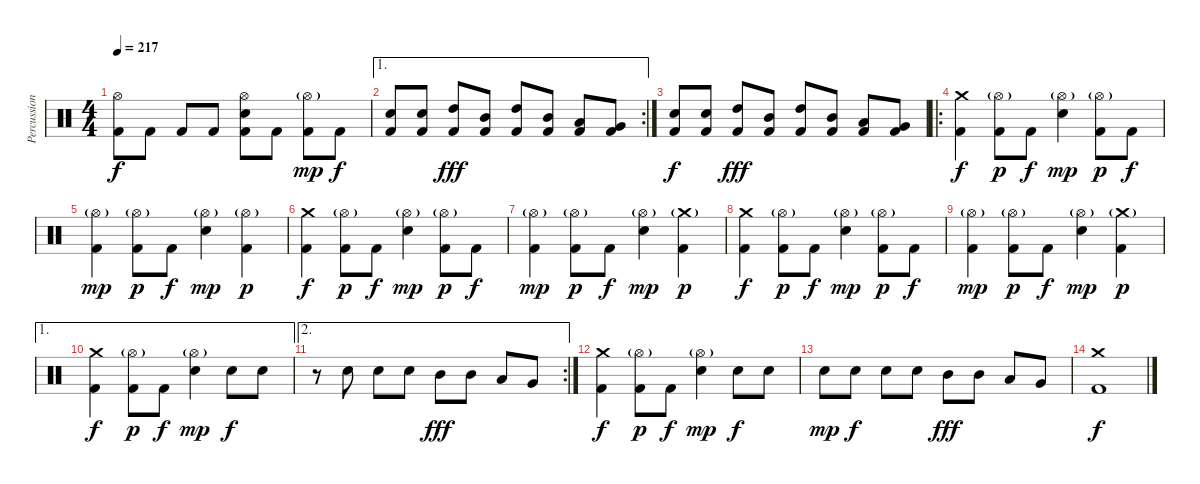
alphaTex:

\track ("Percussion" "Percussion") {instrument percussion}
\staff {score}
\articulation defaults
\ts (4 4)
\tempo 217
\clef neutral
\ks c
("Hi-Hat (open)" "Kick (hit) 2").8{dy f} "Kick (hit) 2".8 "Kick (hit) 2".8 "Kick (hit) 2".8 ("Hi-Hat (open)" "Electric Snare (hit)" "Kick (hit) 2").8 "Kick (hit) 2".8 ("Hi-Hat (open)"{g} "Kick (hit) 2").8{dy mp} "Kick (hit) 2".8{dy f} |
\ae 1
\rc 2
("Electric Snare (hit)" "Kick (hit) 2").8 ("Electric Snare (hit)" "Kick (hit) 2").8 ("High Tom (hit)" "Kick (hit) 2").8{dy fff} ("Mid Tom (hit)" "Kick (hit) 2").8 ("High Tom (hit)" "Kick (hit) 2").8 ("Mid Tom (hit)" "Kick (hit) 2").8 ("Low Tom (hit)" "Kick (hit) 2").8 ("Very Low Tom (hit)" "Kick (hit) 2").8 |
("Electric Snare (hit)" "Kick (hit) 2").8{dy f} ("Electric Snare (hit)" "Kick (hit) 2").8 ("High Tom (hit)" "Kick (hit) 2").8{dy fff} ("Mid Tom (hit)" "Kick (hit) 2").8 ("High Tom (hit)" "Kick (hit) 2").8 ("Mid Tom (hit)" "Kick (hit) 2").8 ("Low Tom (hit)" "Kick (hit) 2").8 ("Very Low Tom (hit)" "Kick (hit) 2").8 |
\ro
("Crash medium (hit)" "Kick (hit) 2").4{dy f} ("Hi-Hat (open)"{g} "Kick (hit) 2").8{dy p} "Kick (hit) 2".8{dy f} ("Hi-Hat (open)"{g} "Electric Snare (hit)").4{dy mp} ("Hi-Hat (open)"{g} "Kick (hit) 2").8{dy p} "Kick (hit) 2".8{dy f} |
("Hi-Hat (open)"{g} "Kick (hit) 2").4{dy mp} ("Hi-Hat (open)"{g} "Kick (hit) 2").8{dy p} "Kick (hit) 2".8{dy f} ("Hi-Hat (open)"{g} "Electric Snare (hit)").4{dy mp} ("Hi-Hat (open)"{g} "Kick (hit) 2").4{dy p} |
("Crash medium (hit)" "Kick (hit) 2").4{dy f} ("Hi-Hat (open)"{g} "Kick (hit) 2").8{dy p} "Kick (hit) 2".8{dy f} ("Hi-Hat (open)"{g} "Electric Snare (hit)").4{dy mp} ("Hi-Hat (open)"{g} "Kick (hit) 2").8{dy p} "Kick (hit) 2".8{dy f} |
("Hi-Hat (open)"{g} "Kick (hit) 2").4{dy mp} ("Hi-Hat (open)"{g} "Kick (hit) 2").8{dy p} "Kick (hit) 2".8{dy f} ("Hi-Hat (open)"{g} "Electric Snare (hit)").4{dy mp} ("Crash medium (hit)"{g} "Kick (hit) 2").4{dy p} |
("Crash medium (hit)" "Kick (hit) 2").4{dy f} ("Hi-Hat (open)"{g} "Kick (hit) 2").8{dy p} "Kick (hit) 2".8{dy f} ("Hi-Hat (open)"{g} "Electric Snare (hit)").4{dy mp} ("Hi-Hat (open)"{g} "Kick (hit) 2").8{dy p} "Kick (hit) 2".8{dy f} |
("Hi-Hat (open)"{g} "Kick (hit) 2").4{dy mp} ("Hi-Hat (open)"{g} "Kick (hit) 2").8{dy p} "Kick (hit) 2".8{dy f} ("Hi-Hat (open)"{g} "Electric Snare (hit)").4{dy mp} ("Crash medium (hit)"{g} "Kick (hit) 2").4{dy p} |
\ae 1
("Crash medium (hit)" "Kick (hit) 2").4{dy f} ("Hi-Hat (open)"{g} "Kick (hit) 2").8{dy p} "Kick (hit) 2".8{dy f} ("Hi-Hat (open)"{g} "Electric Snare (hit)").4{dy mp} "Electric Snare (hit)".8{dy f} "Electric Snare (hit)".8 |
\ae 2
\rc 2
r.8 "Electric Snare (hit)".8 "Electric Snare (hit)".8 "Electric Snare (hit)".8 "Mid Tom (hit)".8{dy fff} "Mid Tom (hit)".8 "Low Tom (hit)".8 "Very Low Tom (hit)".8 |
("Crash medium (hit)" "Kick (hit) 2").4{dy f} ("Hi-Hat (open)"{g} "Kick (hit) 2").8{dy p} "Kick (hit) 2".8{dy f} ("Hi-Hat (open)"{g} "Electric Snare (hit)").4{dy mp} "Electric Snare (hit)".8{dy f} "Electric Snare (hit)".8 |
"Electric Snare (hit)".8{dy mp} "Electric Snare (hit)".8{dy f} "Electric Snare (hit)".8 "Electric Snare (hit)".8 "Mid Tom (hit)".8{dy fff} "Mid Tom (hit)".8 "Low Tom (hit)".8 "Very Low Tom (hit)".8 |
("Crash medium (hit)" "Kick (hit) 2").1{dy f}
